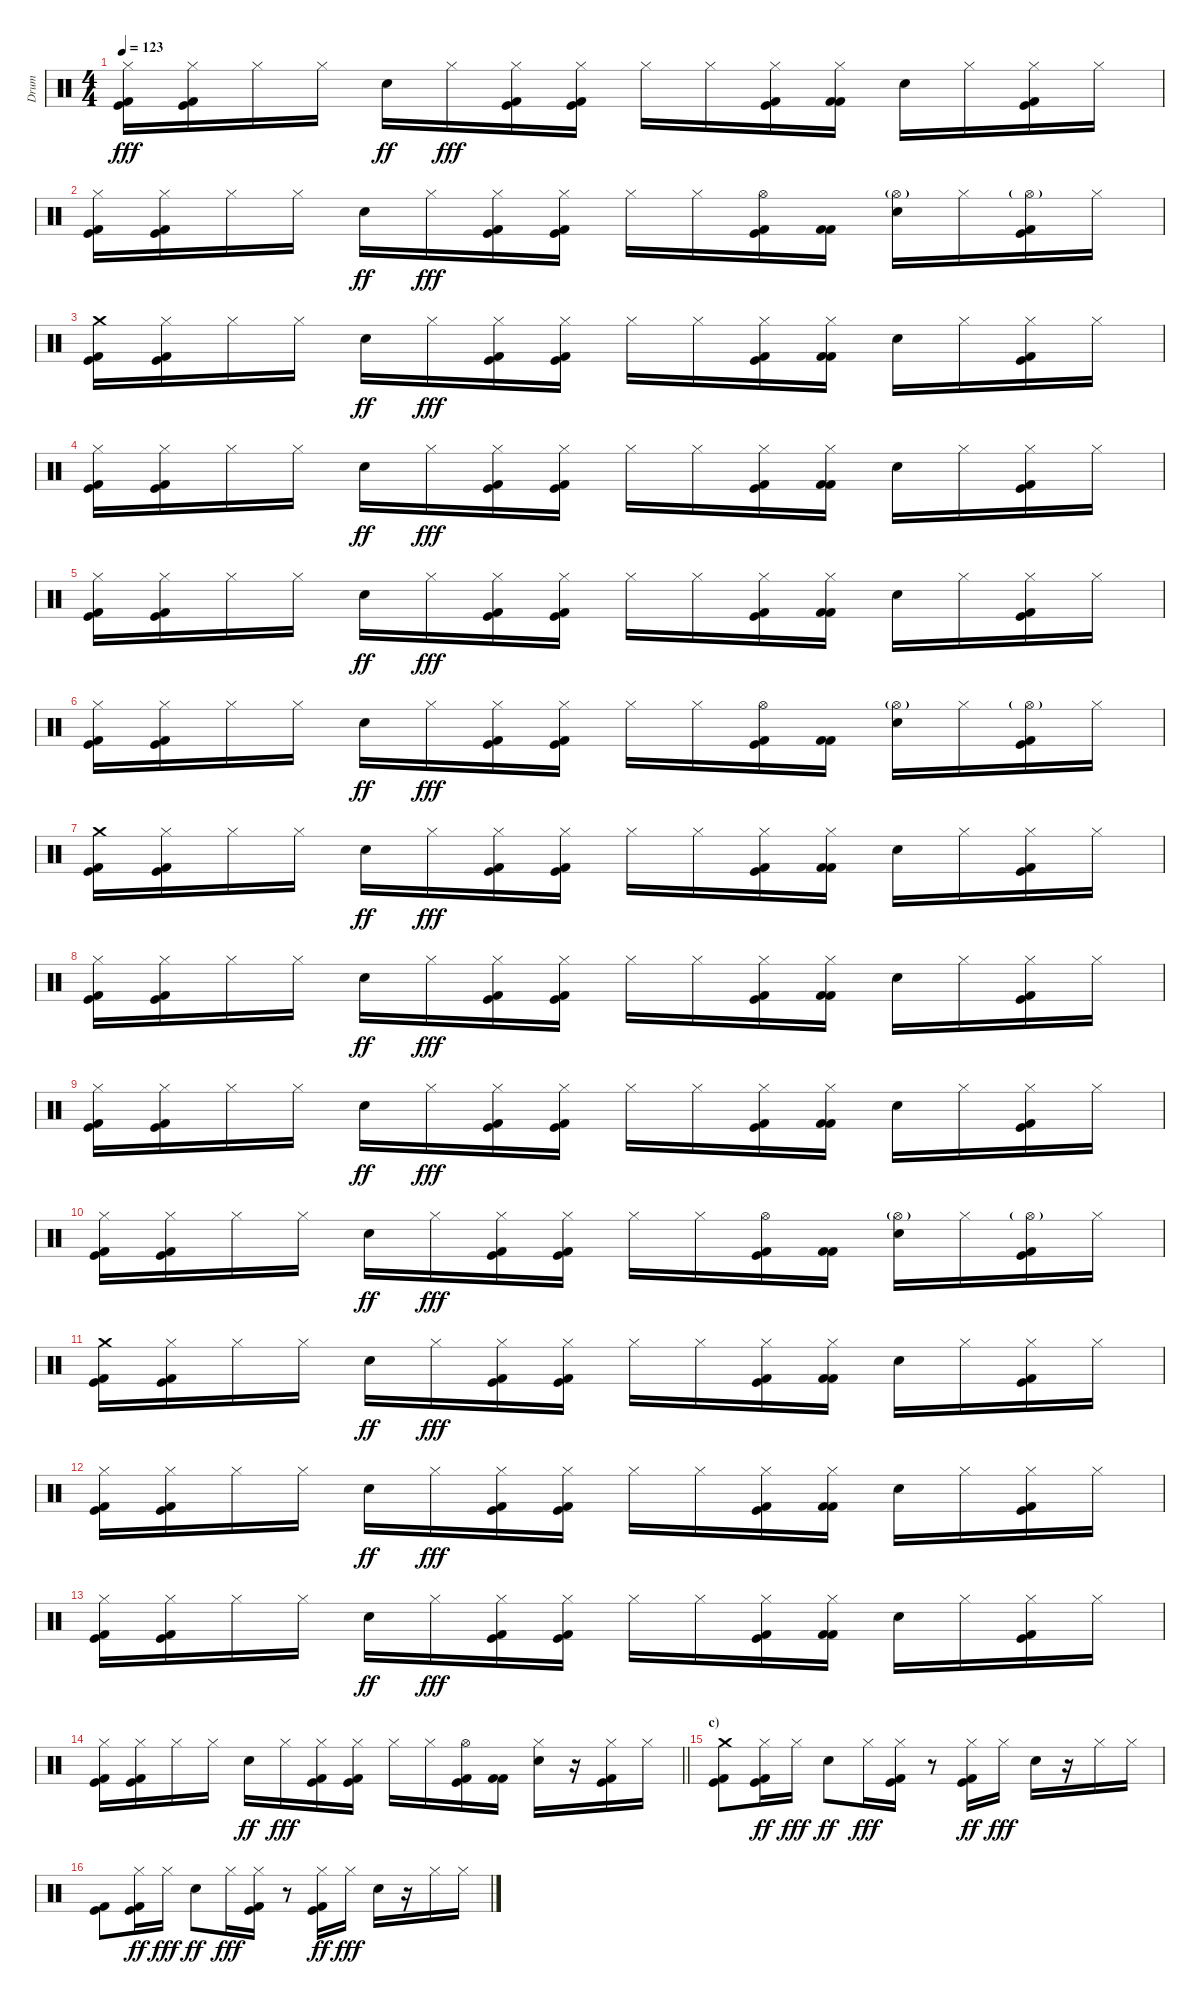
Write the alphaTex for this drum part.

\track ("Drum" "Drum") {instrument percussion}
\staff {score}
\articulation defaults
\ts (4 4)
\tempo 123
\clef neutral
\ks c
("Hi-Hat (closed)" "Kick (hit)" "Kick (hit) 2").16{dy fff} ("Hi-Hat (closed)" "Kick (hit)" "Kick (hit) 2").16 "Hi-Hat (closed)".16 "Hi-Hat (closed)".16 "Electric Snare (hit)".16{dy ff} "Hi-Hat (closed)".16{dy fff} ("Hi-Hat (closed)" "Kick (hit)" "Kick (hit) 2").16 ("Hi-Hat (closed)" "Kick (hit)" "Kick (hit) 2").16 "Hi-Hat (closed)".16 "Hi-Hat (closed)".16 ("Hi-Hat (closed)" "Kick (hit)" "Kick (hit) 2").16 ("Hi-Hat (closed)" "Kick (hit) 2" "Kick (hit) 2").16 "Electric Snare (hit)".16 "Hi-Hat (closed)".16 ("Hi-Hat (closed)" "Kick (hit)" "Kick (hit) 2").16 "Hi-Hat (closed)".16 |
("Hi-Hat (closed)" "Kick (hit)" "Kick (hit) 2").16 ("Hi-Hat (closed)" "Kick (hit)" "Kick (hit) 2").16 "Hi-Hat (closed)".16 "Hi-Hat (closed)".16 "Electric Snare (hit)".16{dy ff} "Hi-Hat (closed)".16{dy fff} ("Hi-Hat (closed)" "Kick (hit)" "Kick (hit) 2").16 ("Hi-Hat (closed)" "Kick (hit)" "Kick (hit) 2").16 "Hi-Hat (closed)".16 "Hi-Hat (closed)".16 ("Hi-Hat (open)" "Kick (hit)" "Kick (hit) 2").16 ("Kick (hit) 2" "Kick (hit) 2").16 ("Hi-Hat (open)"{g} "Electric Snare (hit)").16 "Hi-Hat (closed)".16 ("Hi-Hat (open)"{g} "Kick (hit)" "Kick (hit) 2").16 "Hi-Hat (closed)".16 |
("Crash medium (hit)" "Kick (hit)" "Kick (hit) 2").16 ("Hi-Hat (closed)" "Kick (hit)" "Kick (hit) 2").16 "Hi-Hat (closed)".16 "Hi-Hat (closed)".16 "Electric Snare (hit)".16{dy ff} "Hi-Hat (closed)".16{dy fff} ("Hi-Hat (closed)" "Kick (hit)" "Kick (hit) 2").16 ("Hi-Hat (closed)" "Kick (hit)" "Kick (hit) 2").16 "Hi-Hat (closed)".16 "Hi-Hat (closed)".16 ("Hi-Hat (closed)" "Kick (hit)" "Kick (hit) 2").16 ("Hi-Hat (closed)" "Kick (hit) 2" "Kick (hit) 2").16 "Electric Snare (hit)".16 "Hi-Hat (closed)".16 ("Hi-Hat (closed)" "Kick (hit)" "Kick (hit) 2").16 "Hi-Hat (closed)".16 |
("Hi-Hat (closed)" "Kick (hit)" "Kick (hit) 2").16 ("Hi-Hat (closed)" "Kick (hit)" "Kick (hit) 2").16 "Hi-Hat (closed)".16 "Hi-Hat (closed)".16 "Electric Snare (hit)".16{dy ff} "Hi-Hat (closed)".16{dy fff} ("Hi-Hat (closed)" "Kick (hit)" "Kick (hit) 2").16 ("Hi-Hat (closed)" "Kick (hit)" "Kick (hit) 2").16 "Hi-Hat (closed)".16 "Hi-Hat (closed)".16 ("Hi-Hat (closed)" "Kick (hit)" "Kick (hit) 2").16 ("Hi-Hat (closed)" "Kick (hit) 2" "Kick (hit) 2").16 "Electric Snare (hit)".16 "Hi-Hat (closed)".16 ("Hi-Hat (closed)" "Kick (hit)" "Kick (hit) 2").16 "Hi-Hat (closed)".16 |
("Hi-Hat (closed)" "Kick (hit)" "Kick (hit) 2").16 ("Hi-Hat (closed)" "Kick (hit)" "Kick (hit) 2").16 "Hi-Hat (closed)".16 "Hi-Hat (closed)".16 "Electric Snare (hit)".16{dy ff} "Hi-Hat (closed)".16{dy fff} ("Hi-Hat (closed)" "Kick (hit)" "Kick (hit) 2").16 ("Hi-Hat (closed)" "Kick (hit)" "Kick (hit) 2").16 "Hi-Hat (closed)".16 "Hi-Hat (closed)".16 ("Hi-Hat (closed)" "Kick (hit)" "Kick (hit) 2").16 ("Hi-Hat (closed)" "Kick (hit) 2" "Kick (hit) 2").16 "Electric Snare (hit)".16 "Hi-Hat (closed)".16 ("Hi-Hat (closed)" "Kick (hit)" "Kick (hit) 2").16 "Hi-Hat (closed)".16 |
("Hi-Hat (closed)" "Kick (hit)" "Kick (hit) 2").16 ("Hi-Hat (closed)" "Kick (hit)" "Kick (hit) 2").16 "Hi-Hat (closed)".16 "Hi-Hat (closed)".16 "Electric Snare (hit)".16{dy ff} "Hi-Hat (closed)".16{dy fff} ("Hi-Hat (closed)" "Kick (hit)" "Kick (hit) 2").16 ("Hi-Hat (closed)" "Kick (hit)" "Kick (hit) 2").16 "Hi-Hat (closed)".16 "Hi-Hat (closed)".16 ("Hi-Hat (open)" "Kick (hit)" "Kick (hit) 2").16 ("Kick (hit) 2" "Kick (hit) 2").16 ("Hi-Hat (open)"{g} "Electric Snare (hit)").16 "Hi-Hat (closed)".16 ("Hi-Hat (open)"{g} "Kick (hit)" "Kick (hit) 2").16 "Hi-Hat (closed)".16 |
("Crash medium (hit)" "Kick (hit)" "Kick (hit) 2").16 ("Hi-Hat (closed)" "Kick (hit)" "Kick (hit) 2").16 "Hi-Hat (closed)".16 "Hi-Hat (closed)".16 "Electric Snare (hit)".16{dy ff} "Hi-Hat (closed)".16{dy fff} ("Hi-Hat (closed)" "Kick (hit)" "Kick (hit) 2").16 ("Hi-Hat (closed)" "Kick (hit)" "Kick (hit) 2").16 "Hi-Hat (closed)".16 "Hi-Hat (closed)".16 ("Hi-Hat (closed)" "Kick (hit)" "Kick (hit) 2").16 ("Hi-Hat (closed)" "Kick (hit) 2" "Kick (hit) 2").16 "Electric Snare (hit)".16 "Hi-Hat (closed)".16 ("Hi-Hat (closed)" "Kick (hit)" "Kick (hit) 2").16 "Hi-Hat (closed)".16 |
("Hi-Hat (closed)" "Kick (hit)" "Kick (hit) 2").16 ("Hi-Hat (closed)" "Kick (hit)" "Kick (hit) 2").16 "Hi-Hat (closed)".16 "Hi-Hat (closed)".16 "Electric Snare (hit)".16{dy ff} "Hi-Hat (closed)".16{dy fff} ("Hi-Hat (closed)" "Kick (hit)" "Kick (hit) 2").16 ("Hi-Hat (closed)" "Kick (hit)" "Kick (hit) 2").16 "Hi-Hat (closed)".16 "Hi-Hat (closed)".16 ("Hi-Hat (closed)" "Kick (hit)" "Kick (hit) 2").16 ("Hi-Hat (closed)" "Kick (hit) 2" "Kick (hit) 2").16 "Electric Snare (hit)".16 "Hi-Hat (closed)".16 ("Hi-Hat (closed)" "Kick (hit)" "Kick (hit) 2").16 "Hi-Hat (closed)".16 |
("Hi-Hat (closed)" "Kick (hit)" "Kick (hit) 2").16 ("Hi-Hat (closed)" "Kick (hit)" "Kick (hit) 2").16 "Hi-Hat (closed)".16 "Hi-Hat (closed)".16 "Electric Snare (hit)".16{dy ff} "Hi-Hat (closed)".16{dy fff} ("Hi-Hat (closed)" "Kick (hit)" "Kick (hit) 2").16 ("Hi-Hat (closed)" "Kick (hit)" "Kick (hit) 2").16 "Hi-Hat (closed)".16 "Hi-Hat (closed)".16 ("Hi-Hat (closed)" "Kick (hit)" "Kick (hit) 2").16 ("Hi-Hat (closed)" "Kick (hit) 2" "Kick (hit) 2").16 "Electric Snare (hit)".16 "Hi-Hat (closed)".16 ("Hi-Hat (closed)" "Kick (hit)" "Kick (hit) 2").16 "Hi-Hat (closed)".16 |
("Hi-Hat (closed)" "Kick (hit)" "Kick (hit) 2").16 ("Hi-Hat (closed)" "Kick (hit)" "Kick (hit) 2").16 "Hi-Hat (closed)".16 "Hi-Hat (closed)".16 "Electric Snare (hit)".16{dy ff} "Hi-Hat (closed)".16{dy fff} ("Hi-Hat (closed)" "Kick (hit)" "Kick (hit) 2").16 ("Hi-Hat (closed)" "Kick (hit)" "Kick (hit) 2").16 "Hi-Hat (closed)".16 "Hi-Hat (closed)".16 ("Hi-Hat (open)" "Kick (hit)" "Kick (hit) 2").16 ("Kick (hit) 2" "Kick (hit) 2").16 ("Hi-Hat (open)"{g} "Electric Snare (hit)").16 "Hi-Hat (closed)".16 ("Hi-Hat (open)"{g} "Kick (hit)" "Kick (hit) 2").16 "Hi-Hat (closed)".16 |
("Crash medium (hit)" "Kick (hit)" "Kick (hit) 2").16 ("Hi-Hat (closed)" "Kick (hit)" "Kick (hit) 2").16 "Hi-Hat (closed)".16 "Hi-Hat (closed)".16 "Electric Snare (hit)".16{dy ff} "Hi-Hat (closed)".16{dy fff} ("Hi-Hat (closed)" "Kick (hit)" "Kick (hit) 2").16 ("Hi-Hat (closed)" "Kick (hit)" "Kick (hit) 2").16 "Hi-Hat (closed)".16 "Hi-Hat (closed)".16 ("Hi-Hat (closed)" "Kick (hit)" "Kick (hit) 2").16 ("Hi-Hat (closed)" "Kick (hit) 2" "Kick (hit) 2").16 "Electric Snare (hit)".16 "Hi-Hat (closed)".16 ("Hi-Hat (closed)" "Kick (hit)" "Kick (hit) 2").16 "Hi-Hat (closed)".16 |
("Hi-Hat (closed)" "Kick (hit)" "Kick (hit) 2").16 ("Hi-Hat (closed)" "Kick (hit)" "Kick (hit) 2").16 "Hi-Hat (closed)".16 "Hi-Hat (closed)".16 "Electric Snare (hit)".16{dy ff} "Hi-Hat (closed)".16{dy fff} ("Hi-Hat (closed)" "Kick (hit)" "Kick (hit) 2").16 ("Hi-Hat (closed)" "Kick (hit)" "Kick (hit) 2").16 "Hi-Hat (closed)".16 "Hi-Hat (closed)".16 ("Hi-Hat (closed)" "Kick (hit)" "Kick (hit) 2").16 ("Hi-Hat (closed)" "Kick (hit) 2" "Kick (hit) 2").16 "Electric Snare (hit)".16 "Hi-Hat (closed)".16 ("Hi-Hat (closed)" "Kick (hit)" "Kick (hit) 2").16 "Hi-Hat (closed)".16 |
("Hi-Hat (closed)" "Kick (hit)" "Kick (hit) 2").16 ("Hi-Hat (closed)" "Kick (hit)" "Kick (hit) 2").16 "Hi-Hat (closed)".16 "Hi-Hat (closed)".16 "Electric Snare (hit)".16{dy ff} "Hi-Hat (closed)".16{dy fff} ("Hi-Hat (closed)" "Kick (hit)" "Kick (hit) 2").16 ("Hi-Hat (closed)" "Kick (hit)" "Kick (hit) 2").16 "Hi-Hat (closed)".16 "Hi-Hat (closed)".16 ("Hi-Hat (closed)" "Kick (hit)" "Kick (hit) 2").16 ("Hi-Hat (closed)" "Kick (hit) 2" "Kick (hit) 2").16 "Electric Snare (hit)".16 "Hi-Hat (closed)".16 ("Hi-Hat (closed)" "Kick (hit)" "Kick (hit) 2").16 "Hi-Hat (closed)".16 |
\barLineRight lightlight
("Hi-Hat (closed)" "Kick (hit)" "Kick (hit) 2").16 ("Hi-Hat (closed)" "Kick (hit)" "Kick (hit) 2").16 "Hi-Hat (closed)".16 "Hi-Hat (closed)".16 "Electric Snare (hit)".16{dy ff} "Hi-Hat (closed)".16{dy fff} ("Hi-Hat (closed)" "Kick (hit)" "Kick (hit) 2").16 ("Hi-Hat (closed)" "Kick (hit)" "Kick (hit) 2").16 "Hi-Hat (closed)".16 "Hi-Hat (closed)".16 ("Hi-Hat (open)" "Kick (hit)" "Kick (hit) 2").16 ("Kick (hit) 2" "Kick (hit) 2").16 ("Hi-Hat (closed)" "Electric Snare (hit)").16 r.16 ("Hi-Hat (closed)" "Kick (hit)" "Kick (hit) 2").16 "Hi-Hat (closed)".16 |
\section ("" "c)")
("Crash medium (hit)" "Kick (hit)" "Kick (hit) 2").8 ("Hi-Hat (closed)" "Kick (hit)" "Kick (hit) 2").16{dy ff} "Hi-Hat (closed)".16{dy fff} "Electric Snare (hit)".8{dy ff} "Hi-Hat (closed)".16{dy fff} ("Hi-Hat (closed)" "Kick (hit)" "Kick (hit) 2").16 r.8 ("Hi-Hat (closed)" "Kick (hit)" "Kick (hit) 2").16{dy ff} "Hi-Hat (closed)".16{dy fff} "Electric Snare (hit)".16 r.16 "Hi-Hat (closed)".16 "Hi-Hat (closed)".16 |
("Kick (hit)" "Kick (hit) 2").8 ("Hi-Hat (closed)" "Kick (hit)" "Kick (hit) 2").16{dy ff} "Hi-Hat (closed)".16{dy fff} "Electric Snare (hit)".8{dy ff} "Hi-Hat (closed)".16{dy fff} ("Hi-Hat (closed)" "Kick (hit)" "Kick (hit) 2").16 r.8 ("Hi-Hat (closed)" "Kick (hit)" "Kick (hit) 2").16{dy ff} "Hi-Hat (closed)".16{dy fff} "Electric Snare (hit)".16 r.16 "Hi-Hat (closed)".16 "Hi-Hat (closed)".16
